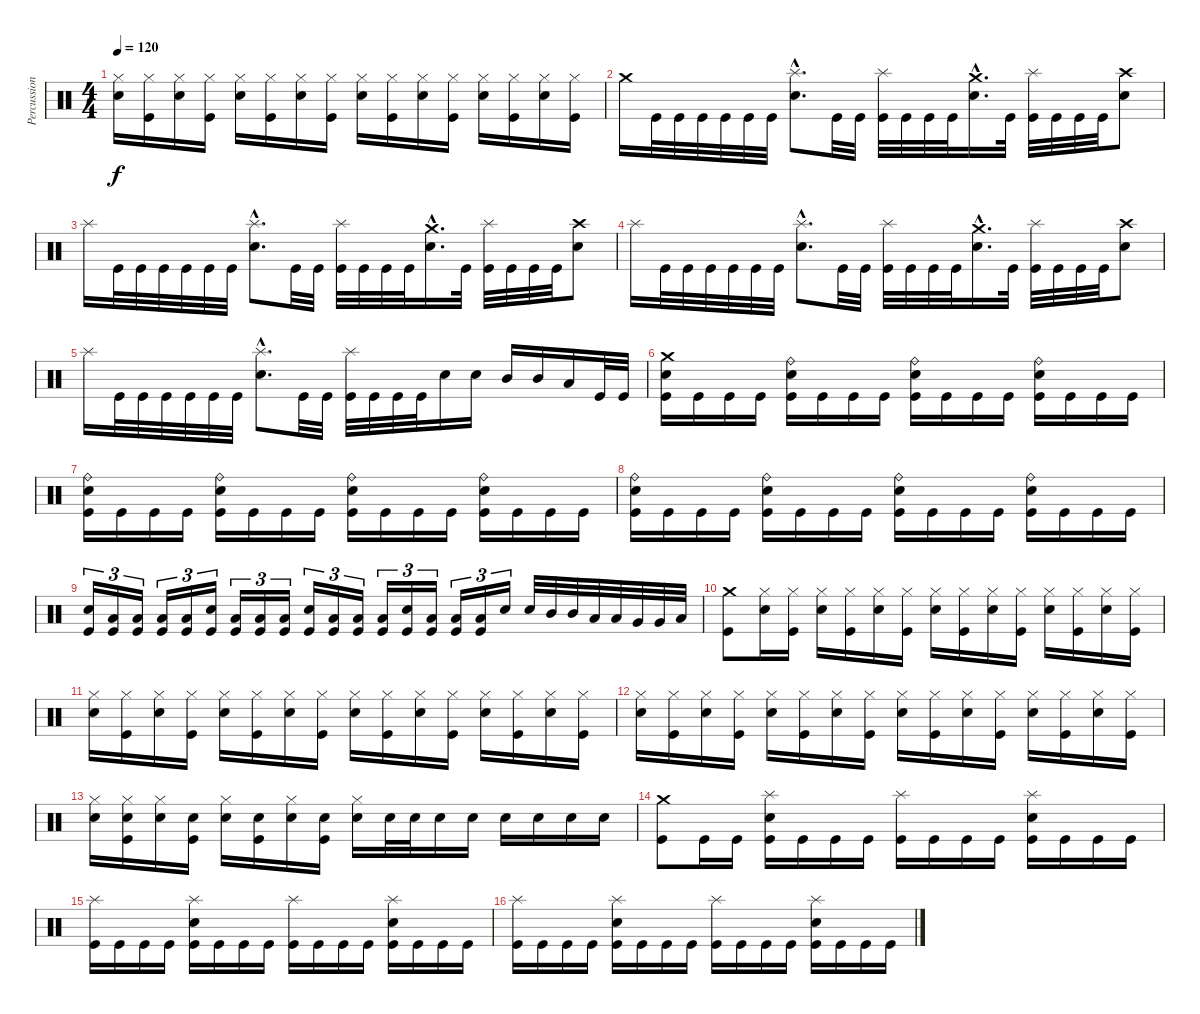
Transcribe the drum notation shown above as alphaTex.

\track ("Percussions" "Percussion") {instrument percussion}
\staff {score}
\articulation defaults
\ts (4 4)
\tempo 120
\clef neutral
\ks c
("Electric Snare (hit)" "Hi-Hat (closed)").16{dy f} ("Kick (hit)" "Hi-Hat (closed)").16 ("Electric Snare (hit)" "Hi-Hat (closed)").16 ("Kick (hit)" "Hi-Hat (closed)").16 ("Electric Snare (hit)" "Hi-Hat (closed)").16 ("Kick (hit)" "Hi-Hat (closed)").16 ("Electric Snare (hit)" "Hi-Hat (closed)").16 ("Kick (hit)" "Hi-Hat (closed)").16 ("Electric Snare (hit)" "Hi-Hat (closed)").16 ("Kick (hit)" "Hi-Hat (closed)").16 ("Electric Snare (hit)" "Hi-Hat (closed)").16 ("Kick (hit)" "Hi-Hat (closed)").16 ("Electric Snare (hit)" "Hi-Hat (closed)").16 ("Kick (hit)" "Hi-Hat (closed)").16 ("Electric Snare (hit)" "Hi-Hat (closed)").16 ("Kick (hit)" "Hi-Hat (closed)").16 |
"Crash medium (hit)".16 "Kick (hit)".32 "Kick (hit)".32 "Kick (hit)".32 "Kick (hit)".32 "Kick (hit)".32 "Kick (hit)".32 ("Electric Snare (hit)"{hac} "Splash (hit)"{hac}).8{d} "Kick (hit)".32 "Kick (hit)".32 ("Kick (hit)" "Splash (hit)").32 "Kick (hit)".32 "Kick (hit)".32 "Kick (hit)".32 ("Electric Snare (hit)"{hac} "Crash medium (hit)"{hac}).16{d} "Kick (hit)".32 ("Kick (hit)" "Splash (hit)").32 "Kick (hit)".32 "Kick (hit)".32 "Kick (hit)".32 ("Electric Snare (hit)" "Crash high (hit)").8 |
"Splash (hit)".16 "Kick (hit)".32 "Kick (hit)".32 "Kick (hit)".32 "Kick (hit)".32 "Kick (hit)".32 "Kick (hit)".32 ("Electric Snare (hit)"{hac} "Splash (hit)"{hac}).8{d} "Kick (hit)".32 "Kick (hit)".32 ("Kick (hit)" "Splash (hit)").32 "Kick (hit)".32 "Kick (hit)".32 "Kick (hit)".32 ("Electric Snare (hit)"{hac} "Crash medium (hit)"{hac}).16{d} "Kick (hit)".32 ("Kick (hit)" "Splash (hit)").32 "Kick (hit)".32 "Kick (hit)".32 "Kick (hit)".32 ("Electric Snare (hit)" "Crash high (hit)").8 |
"Splash (hit)".16 "Kick (hit)".32 "Kick (hit)".32 "Kick (hit)".32 "Kick (hit)".32 "Kick (hit)".32 "Kick (hit)".32 ("Electric Snare (hit)"{hac} "Splash (hit)"{hac}).8{d} "Kick (hit)".32 "Kick (hit)".32 ("Kick (hit)" "Splash (hit)").32 "Kick (hit)".32 "Kick (hit)".32 "Kick (hit)".32 ("Electric Snare (hit)"{hac} "Crash medium (hit)"{hac}).16{d} "Kick (hit)".32 ("Kick (hit)" "Splash (hit)").32 "Kick (hit)".32 "Kick (hit)".32 "Kick (hit)".32 ("Electric Snare (hit)" "Crash high (hit)").8 |
"Splash (hit)".16 "Kick (hit)".32 "Kick (hit)".32 "Kick (hit)".32 "Kick (hit)".32 "Kick (hit)".32 "Kick (hit)".32 ("Electric Snare (hit)"{hac} "Splash (hit)"{hac}).8{d} "Kick (hit)".32 "Kick (hit)".32 ("Kick (hit)" "Splash (hit)").32 "Kick (hit)".32 "Kick (hit)".32 "Kick (hit)".32 "Electric Snare (hit)".16 "Electric Snare (hit)".16 "Mid Tom (hit)".16 "Mid Tom (hit)".16 "Low Tom (hit)".16 "Kick (hit)".32 "Kick (hit)".32 |
("Kick (hit)" "Electric Snare (hit)" "Crash medium (hit)").16 "Kick (hit)".16 "Kick (hit)".16 "Kick (hit)".16 ("Kick (hit)" "Electric Snare (hit)" "Ride (bell)").16 "Kick (hit)".16 "Kick (hit)".16 "Kick (hit)".16 ("Kick (hit)" "Electric Snare (hit)" "Ride (bell)").16 "Kick (hit)".16 "Kick (hit)".16 "Kick (hit)".16 ("Kick (hit)" "Electric Snare (hit)" "Ride (bell)").16 "Kick (hit)".16 "Kick (hit)".16 "Kick (hit)".16 |
("Kick (hit)" "Electric Snare (hit)" "Ride (bell)").16 "Kick (hit)".16 "Kick (hit)".16 "Kick (hit)".16 ("Kick (hit)" "Electric Snare (hit)" "Ride (bell)").16 "Kick (hit)".16 "Kick (hit)".16 "Kick (hit)".16 ("Kick (hit)" "Electric Snare (hit)" "Ride (bell)").16 "Kick (hit)".16 "Kick (hit)".16 "Kick (hit)".16 ("Kick (hit)" "Electric Snare (hit)" "Ride (bell)").16 "Kick (hit)".16 "Kick (hit)".16 "Kick (hit)".16 |
("Kick (hit)" "Electric Snare (hit)" "Ride (bell)").16 "Kick (hit)".16 "Kick (hit)".16 "Kick (hit)".16 ("Kick (hit)" "Electric Snare (hit)" "Ride (bell)").16 "Kick (hit)".16 "Kick (hit)".16 "Kick (hit)".16 ("Kick (hit)" "Electric Snare (hit)" "Ride (bell)").16 "Kick (hit)".16 "Kick (hit)".16 "Kick (hit)".16 ("Kick (hit)" "Electric Snare (hit)" "Ride (bell)").16 "Kick (hit)".16 "Kick (hit)".16 "Kick (hit)".16 |
("Kick (hit)" "Electric Snare (hit)").16{tu (3 2)} ("Kick (hit)" "Low Tom (hit)").16{tu (3 2)} ("Kick (hit)" "Low Tom (hit)").16{tu (3 2)} ("Kick (hit)" "Low Tom (hit)").16{tu (3 2)} ("Kick (hit)" "Low Tom (hit)").16{tu (3 2)} ("Kick (hit)" "Electric Snare (hit)").16{tu (3 2)} ("Kick (hit)" "Low Tom (hit)").16{tu (3 2)} ("Kick (hit)" "Low Tom (hit)").16{tu (3 2)} ("Kick (hit)" "Low Tom (hit)").16{tu (3 2)} ("Kick (hit)" "Electric Snare (hit)").16{tu (3 2)} ("Kick (hit)" "Low Tom (hit)").16{tu (3 2)} ("Kick (hit)" "Low Tom (hit)").16{tu (3 2)} ("Kick (hit)" "Low Tom (hit)").16{tu (3 2)} ("Kick (hit)" "Electric Snare (hit)").16{tu (3 2)} ("Kick (hit)" "Low Tom (hit)").16{tu (3 2)} ("Kick (hit)" "Low Tom (hit)").16{tu (3 2)} ("Kick (hit)" "Low Tom (hit)").16{tu (3 2)} "Electric Snare (hit)".16{tu (3 2)} "Electric Snare (hit)".32 "Mid Tom (hit)".32 "Mid Tom (hit)".32 "Low Tom (hit)".32 "Low Tom (hit)".32 "Very Low Tom (hit)".32 "Very Low Tom (hit)".32 "Low Floor Tom (hit)".32 |
("Kick (hit)" "Crash medium (hit)").8 ("Electric Snare (hit)" "Hi-Hat (closed)").16 ("Kick (hit)" "Hi-Hat (closed)").16 ("Electric Snare (hit)" "Hi-Hat (closed)").16 ("Kick (hit)" "Hi-Hat (closed)").16 ("Electric Snare (hit)" "Hi-Hat (closed)").16 ("Kick (hit)" "Hi-Hat (closed)").16 ("Electric Snare (hit)" "Hi-Hat (closed)").16 ("Kick (hit)" "Hi-Hat (closed)").16 ("Electric Snare (hit)" "Hi-Hat (closed)").16 ("Kick (hit)" "Hi-Hat (closed)").16 ("Electric Snare (hit)" "Hi-Hat (closed)").16 ("Kick (hit)" "Hi-Hat (closed)").16 ("Electric Snare (hit)" "Hi-Hat (closed)").16 ("Kick (hit)" "Hi-Hat (closed)").16 |
("Electric Snare (hit)" "Hi-Hat (closed)").16 ("Kick (hit)" "Hi-Hat (closed)").16 ("Electric Snare (hit)" "Hi-Hat (closed)").16 ("Kick (hit)" "Hi-Hat (closed)").16 ("Electric Snare (hit)" "Hi-Hat (closed)").16 ("Kick (hit)" "Hi-Hat (closed)").16 ("Electric Snare (hit)" "Hi-Hat (closed)").16 ("Kick (hit)" "Hi-Hat (closed)").16 ("Electric Snare (hit)" "Hi-Hat (closed)").16 ("Kick (hit)" "Hi-Hat (closed)").16 ("Electric Snare (hit)" "Hi-Hat (closed)").16 ("Kick (hit)" "Hi-Hat (closed)").16 ("Electric Snare (hit)" "Hi-Hat (closed)").16 ("Kick (hit)" "Hi-Hat (closed)").16 ("Electric Snare (hit)" "Hi-Hat (closed)").16 ("Kick (hit)" "Hi-Hat (closed)").16 |
("Electric Snare (hit)" "Hi-Hat (closed)").16 ("Kick (hit)" "Hi-Hat (closed)").16 ("Electric Snare (hit)" "Hi-Hat (closed)").16 ("Kick (hit)" "Hi-Hat (closed)").16 ("Electric Snare (hit)" "Hi-Hat (closed)").16 ("Kick (hit)" "Hi-Hat (closed)").16 ("Electric Snare (hit)" "Hi-Hat (closed)").16 ("Kick (hit)" "Hi-Hat (closed)").16 ("Electric Snare (hit)" "Hi-Hat (closed)").16 ("Kick (hit)" "Hi-Hat (closed)").16 ("Electric Snare (hit)" "Hi-Hat (closed)").16 ("Kick (hit)" "Hi-Hat (closed)").16 ("Electric Snare (hit)" "Hi-Hat (closed)").16 ("Kick (hit)" "Hi-Hat (closed)").16 ("Electric Snare (hit)" "Hi-Hat (closed)").16 ("Kick (hit)" "Hi-Hat (closed)").16 |
("Electric Snare (hit)" "Hi-Hat (closed)").16 ("Kick (hit)" "Electric Snare (hit)" "Hi-Hat (closed)").16 ("Electric Snare (hit)" "Hi-Hat (closed)").16 ("Kick (hit)" "Electric Snare (hit)").16 ("Electric Snare (hit)" "Hi-Hat (closed)").16 ("Kick (hit)" "Electric Snare (hit)").16 ("Electric Snare (hit)" "Hi-Hat (closed)").16 ("Kick (hit)" "Electric Snare (hit)").16 ("Electric Snare (hit)" "Hi-Hat (closed)").16 "Electric Snare (hit)".32 "Electric Snare (hit)".32 "Electric Snare (hit)".16 "Electric Snare (hit)".16 "Electric Snare (hit)".16 "Electric Snare (hit)".16 "Electric Snare (hit)".16 "Electric Snare (hit)".16 |
("Kick (hit)" "Crash medium (hit)").8 "Kick (hit)".16 "Kick (hit)".16 ("Kick (hit)" "Electric Snare (hit)" "Splash (hit)").16 "Kick (hit)".16 "Kick (hit)".16 "Kick (hit)".16 ("Kick (hit)" "Splash (hit)").16 "Kick (hit)".16 "Kick (hit)".16 "Kick (hit)".16 ("Kick (hit)" "Electric Snare (hit)" "Splash (hit)").16 "Kick (hit)".16 "Kick (hit)".16 "Kick (hit)".16 |
("Kick (hit)" "Splash (hit)").16 "Kick (hit)".16 "Kick (hit)".16 "Kick (hit)".16 ("Kick (hit)" "Electric Snare (hit)" "Splash (hit)").16 "Kick (hit)".16 "Kick (hit)".16 "Kick (hit)".16 ("Kick (hit)" "Splash (hit)").16 "Kick (hit)".16 "Kick (hit)".16 "Kick (hit)".16 ("Kick (hit)" "Electric Snare (hit)" "Splash (hit)").16 "Kick (hit)".16 "Kick (hit)".16 "Kick (hit)".16 |
("Kick (hit)" "Splash (hit)").16 "Kick (hit)".16 "Kick (hit)".16 "Kick (hit)".16 ("Kick (hit)" "Electric Snare (hit)" "Splash (hit)").16 "Kick (hit)".16 "Kick (hit)".16 "Kick (hit)".16 ("Kick (hit)" "Splash (hit)").16 "Kick (hit)".16 "Kick (hit)".16 "Kick (hit)".16 ("Kick (hit)" "Electric Snare (hit)" "Splash (hit)").16 "Kick (hit)".16 "Kick (hit)".16 "Kick (hit)".16
